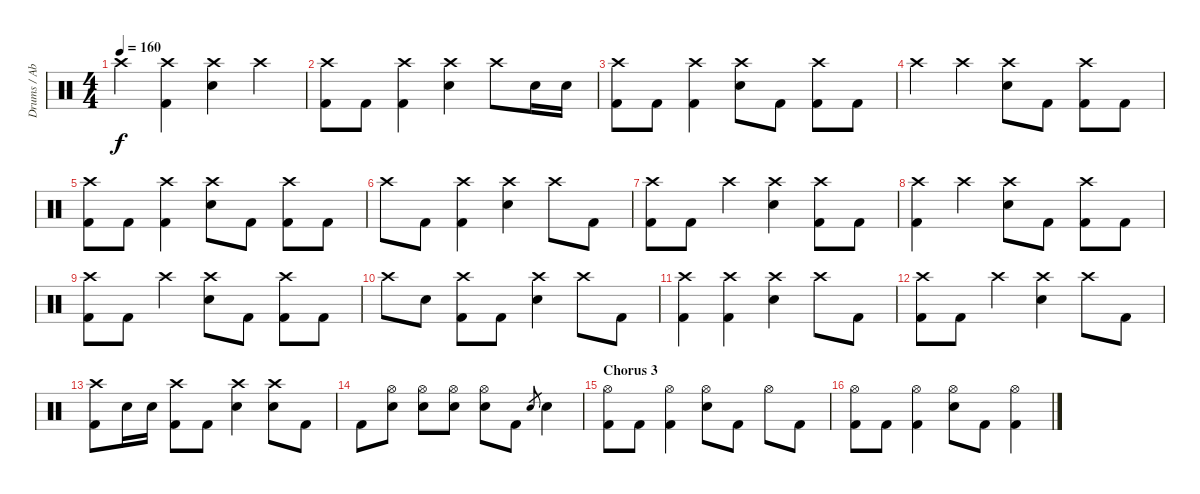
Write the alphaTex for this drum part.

\track ("Drums / Abe Cunningham" "Drums / Ab") {instrument percussion}
\staff {score}
\articulation defaults
\ts (4 4)
\tempo 160
\clef neutral
\ks c "Crash high (hit)".4{dy f}
("Crash high (hit)" "Kick (hit) 2").4 ("Crash high (hit)" "Electric Snare (hit)").4 "Crash high (hit)".4 |
("Crash high (hit)" "Kick (hit) 2").8 "Kick (hit) 2".8 ("Crash high (hit)" "Kick (hit) 2").4 ("Crash high (hit)" "Electric Snare (hit)").4 "Crash high (hit)".8 "Electric Snare (hit)".16 "Electric Snare (hit)".16 |
("Crash high (hit)" "Kick (hit) 2").8 "Kick (hit) 2".8 ("Crash high (hit)" "Kick (hit) 2").4 ("Crash high (hit)" "Electric Snare (hit)").8 "Kick (hit) 2".8 ("Crash high (hit)" "Kick (hit) 2").8 "Kick (hit) 2".8 |
"Crash high (hit)".4 "Crash high (hit)".4 ("Crash high (hit)" "Electric Snare (hit)").8 "Kick (hit) 2".8 ("Crash high (hit)" "Kick (hit) 2").8 "Kick (hit) 2".8 |
("Crash high (hit)" "Kick (hit) 2").8 "Kick (hit) 2".8 ("Crash high (hit)" "Kick (hit) 2").4 ("Crash high (hit)" "Electric Snare (hit)").8 "Kick (hit) 2".8 ("Crash high (hit)" "Kick (hit) 2").8 "Kick (hit) 2".8 |
"Crash high (hit)".8 "Kick (hit) 2".8 ("Crash high (hit)" "Kick (hit) 2").4 ("Crash high (hit)" "Electric Snare (hit)").4 "Crash high (hit)".8 "Kick (hit) 2".8 |
("Crash high (hit)" "Kick (hit) 2").8 "Kick (hit) 2".8 "Crash high (hit)".4 ("Crash high (hit)" "Electric Snare (hit)").4 ("Crash high (hit)" "Kick (hit) 2").8 "Kick (hit) 2".8 |
("Crash high (hit)" "Kick (hit) 2").4 "Crash high (hit)".4 ("Crash high (hit)" "Electric Snare (hit)").8 "Kick (hit) 2".8 ("Crash high (hit)" "Kick (hit) 2").8 "Kick (hit) 2".8 |
("Crash high (hit)" "Kick (hit) 2").8 "Kick (hit) 2".8 "Crash high (hit)".4 ("Crash high (hit)" "Electric Snare (hit)").8 "Kick (hit) 2".8 ("Crash high (hit)" "Kick (hit) 2").8 "Kick (hit) 2".8 |
"Crash high (hit)".8 "Electric Snare (hit)".8 ("Crash high (hit)" "Kick (hit) 2").8 "Kick (hit) 2".8 ("Crash high (hit)" "Electric Snare (hit)").4 "Crash high (hit)".8 "Kick (hit) 2".8 |
("Crash high (hit)" "Kick (hit) 2").4 ("Crash high (hit)" "Kick (hit) 2").4 ("Crash high (hit)" "Electric Snare (hit)").4 "Crash high (hit)".8 "Kick (hit) 2".8 |
("Crash high (hit)" "Kick (hit) 2").8 "Kick (hit) 2".8 "Crash high (hit)".4 ("Crash high (hit)" "Electric Snare (hit)").4 "Crash high (hit)".8 "Kick (hit) 2".8 |
("Crash high (hit)" "Kick (hit) 2").8 "Electric Snare (hit)".16 "Electric Snare (hit)".16 ("Crash high (hit)" "Kick (hit) 2").8 "Kick (hit) 2".8 ("Crash high (hit)" "Electric Snare (hit)").4 ("Crash high (hit)" "Electric Snare (hit)").8 "Kick (hit) 2".8 |
"Kick (hit) 2".8 ("Hi-Hat (open)" "Electric Snare (hit)").8 ("Hi-Hat (open)" "Electric Snare (hit)").8 ("Hi-Hat (open)" "Electric Snare (hit)").8 ("Hi-Hat (open)" "Electric Snare (hit)").8 "Kick (hit) 2".8 "Electric Snare (hit)".8{gr} "Electric Snare (hit)".4 |
\section ("" "Chorus 3")
("Hi-Hat (open)" "Kick (hit) 2").8 "Kick (hit) 2".8 ("Hi-Hat (open)" "Kick (hit) 2").4 ("Hi-Hat (open)" "Electric Snare (hit)").8 "Kick (hit) 2".8 "Hi-Hat (open)".8 "Kick (hit) 2".8 |
("Hi-Hat (open)" "Kick (hit) 2").8 "Kick (hit) 2".8 ("Hi-Hat (open)" "Kick (hit) 2").4 ("Hi-Hat (open)" "Electric Snare (hit)").8 "Kick (hit) 2".8 ("Hi-Hat (open)" "Kick (hit) 2").4
